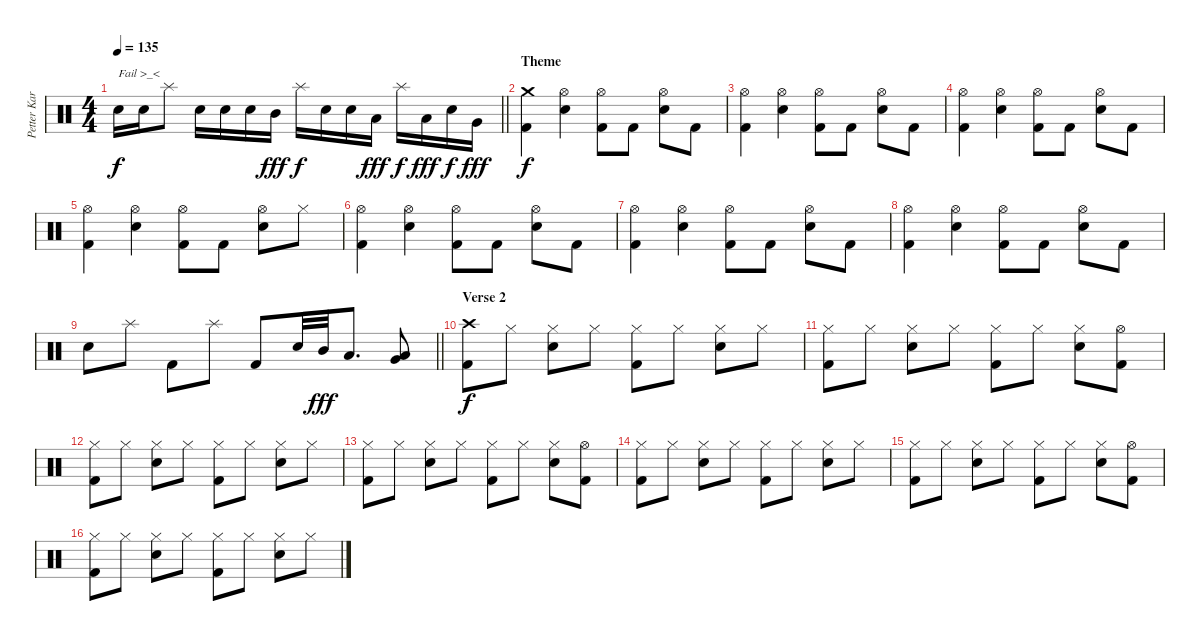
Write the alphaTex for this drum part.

\track ("Petter Karlsson" "Petter Kar") {instrument percussion}
\staff {score}
\articulation defaults
\ts (4 4)
\tempo 135
\clef neutral
\barLineRight lightlight
\ks c "Electric Snare (hit)".16{txt "Fail >_<" dy f} "Electric Snare (hit)".16 "Splash (hit)".8 "Electric Snare (hit)".16 "Electric Snare (hit)".16 "Electric Snare (hit)".16 "Mid Tom (hit)".16{dy fff} "Splash (hit)".16{dy f} "Electric Snare (hit)".16 "Electric Snare (hit)".16 "Low Tom (hit)".16{dy fff} "Splash (hit)".16{dy f} "Low Tom (hit)".16{dy fff} "Electric Snare (hit)".16{dy f} "Very Low Tom (hit)".16{dy fff}
|
\section ("" "Theme ")
("Crash medium (hit)" "Kick (hit) 2").4{dy f} ("Hi-Hat (open)" "Electric Snare (hit)").4 ("Hi-Hat (open)" "Kick (hit) 2").8 "Kick (hit) 2".8 ("Hi-Hat (open)" "Electric Snare (hit)").8 "Kick (hit) 2".8 |
("Hi-Hat (open)" "Kick (hit) 2").4 ("Hi-Hat (open)" "Electric Snare (hit)").4 ("Hi-Hat (open)" "Kick (hit) 2").8 "Kick (hit) 2".8 ("Hi-Hat (open)" "Electric Snare (hit)").8 "Kick (hit) 2".8 |
("Hi-Hat (open)" "Kick (hit) 2").4 ("Hi-Hat (open)" "Electric Snare (hit)").4 ("Hi-Hat (open)" "Kick (hit) 2").8 "Kick (hit) 2".8 ("Hi-Hat (open)" "Electric Snare (hit)").8 "Kick (hit) 2".8 |
("Hi-Hat (open)" "Kick (hit) 2").4 ("Hi-Hat (open)" "Electric Snare (hit)").4 ("Hi-Hat (open)" "Kick (hit) 2").8 "Kick (hit) 2".8 ("Hi-Hat (open)" "Electric Snare (hit)").8 "Hi-Hat (closed)".8 |
("Hi-Hat (open)" "Kick (hit) 2").4 ("Hi-Hat (open)" "Electric Snare (hit)").4 ("Hi-Hat (open)" "Kick (hit) 2").8 "Kick (hit) 2".8 ("Hi-Hat (open)" "Electric Snare (hit)").8 "Kick (hit) 2".8 |
("Hi-Hat (open)" "Kick (hit) 2").4 ("Hi-Hat (open)" "Electric Snare (hit)").4 ("Hi-Hat (open)" "Kick (hit) 2").8 "Kick (hit) 2".8 ("Hi-Hat (open)" "Electric Snare (hit)").8 "Kick (hit) 2".8 |
("Hi-Hat (open)" "Kick (hit) 2").4 ("Hi-Hat (open)" "Electric Snare (hit)").4 ("Hi-Hat (open)" "Kick (hit) 2").8 "Kick (hit) 2".8 ("Hi-Hat (open)" "Electric Snare (hit)").8 "Kick (hit) 2".8 |
\barLineRight lightlight "Electric Snare (hit)".8 "Splash (hit)".8 "Kick (hit) 2".8 "Splash (hit)".8 "Kick (hit) 2".8 "Electric Snare (hit)".32 "Mid Tom (hit)".32{dy fff} "Low Tom (hit)".8{d}
("Low Floor Tom (hit)" "Very Low Tom (hit)").8 |
\section ("" "Verse 2 ")
("Crash high (hit)" "Kick (hit) 2").8{dy f} "Hi-Hat (closed)".8 ("Hi-Hat (closed)" "Electric Snare (hit)").8 "Hi-Hat (closed)".8 ("Hi-Hat (closed)" "Kick (hit) 2").8 "Hi-Hat (closed)".8 ("Hi-Hat (closed)" "Electric Snare (hit)").8 "Hi-Hat (closed)".8 |
("Hi-Hat (closed)" "Kick (hit) 2").8 "Hi-Hat (closed)".8 ("Hi-Hat (closed)" "Electric Snare (hit)").8 "Hi-Hat (closed)".8 ("Hi-Hat (closed)" "Kick (hit) 2").8 "Hi-Hat (closed)".8 ("Hi-Hat (closed)" "Electric Snare (hit)").8 ("Hi-Hat (open)" "Kick (hit) 2").8 |
("Hi-Hat (closed)" "Kick (hit) 2").8 "Hi-Hat (closed)".8 ("Hi-Hat (closed)" "Electric Snare (hit)").8 "Hi-Hat (closed)".8 ("Hi-Hat (closed)" "Kick (hit) 2").8 "Hi-Hat (closed)".8 ("Hi-Hat (closed)" "Electric Snare (hit)").8 "Hi-Hat (closed)".8 |
("Hi-Hat (closed)" "Kick (hit) 2").8 "Hi-Hat (closed)".8 ("Hi-Hat (closed)" "Electric Snare (hit)").8 "Hi-Hat (closed)".8 ("Hi-Hat (closed)" "Kick (hit) 2").8 "Hi-Hat (closed)".8 ("Hi-Hat (closed)" "Electric Snare (hit)").8 ("Hi-Hat (open)" "Kick (hit) 2").8 |
("Hi-Hat (closed)" "Kick (hit) 2").8 "Hi-Hat (closed)".8 ("Hi-Hat (closed)" "Electric Snare (hit)").8 "Hi-Hat (closed)".8 ("Hi-Hat (closed)" "Kick (hit) 2").8 "Hi-Hat (closed)".8 ("Hi-Hat (closed)" "Electric Snare (hit)").8 "Hi-Hat (closed)".8 |
("Hi-Hat (closed)" "Kick (hit) 2").8 "Hi-Hat (closed)".8 ("Hi-Hat (closed)" "Electric Snare (hit)").8 "Hi-Hat (closed)".8 ("Hi-Hat (closed)" "Kick (hit) 2").8 "Hi-Hat (closed)".8 ("Hi-Hat (closed)" "Electric Snare (hit)").8 ("Hi-Hat (open)" "Kick (hit) 2").8 |
("Hi-Hat (closed)" "Kick (hit) 2").8 "Hi-Hat (closed)".8 ("Hi-Hat (closed)" "Electric Snare (hit)").8 "Hi-Hat (closed)".8 ("Hi-Hat (closed)" "Kick (hit) 2").8 "Hi-Hat (closed)".8 ("Hi-Hat (closed)" "Electric Snare (hit)").8 "Hi-Hat (closed)".8
